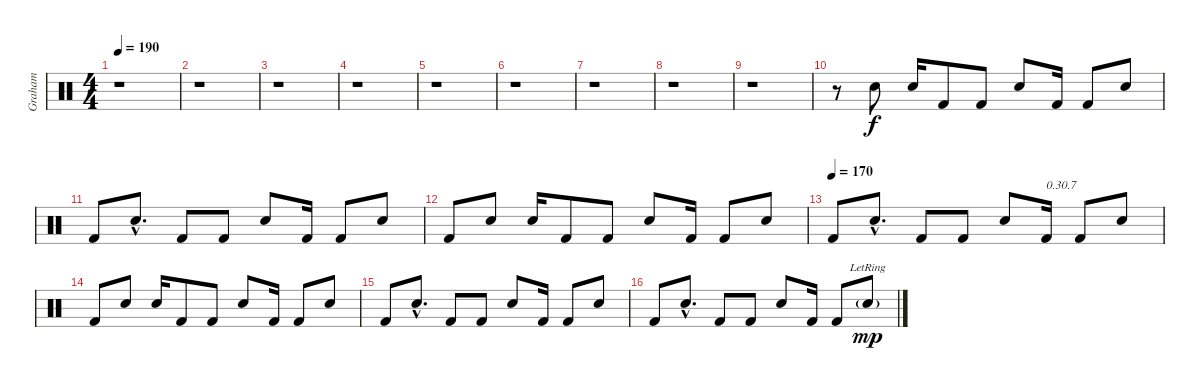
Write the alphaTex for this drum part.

\track ("Graham" "Graham") {instrument percussion}
\staff {score}
\articulation defaults
\ts (4 4)
\tempo 190
\tempo 95
\tempo 190
\clef neutral
\ks c
r.1{dy f} |
r.1 |
r.1 |
r.1 |
r.1 |
r.1 |
r.1 |
r.1 |
r.1 |
r.8 "Electric Snare (hit)".8 "Electric Snare (hit)".16 "Kick (hit) 2".8 "Kick (hit) 2".8 "Electric Snare (hit)".8 "Kick (hit) 2".16 "Kick (hit) 2".8 "Electric Snare (hit)".8 |
"Kick (hit) 2".8 "Electric Snare (hit)"{hac}.8{d} "Kick (hit) 2".8 "Kick (hit) 2".8 "Electric Snare (hit)".8 "Kick (hit) 2".16 "Kick (hit) 2".8 "Electric Snare (hit)".8 |
"Kick (hit) 2".8 "Electric Snare (hit)".8 "Electric Snare (hit)".16 "Kick (hit) 2".8 "Kick (hit) 2".8 "Electric Snare (hit)".8 "Kick (hit) 2".16 "Kick (hit) 2".8 "Electric Snare (hit)".8 |
\tempo (170)
"Kick (hit) 2".8 "Electric Snare (hit)"{hac}.8{d} "Kick (hit) 2".8 "Kick (hit) 2".8 "Electric Snare (hit)".8 "Kick (hit) 2".16{txt "0.30.7"} "Kick (hit) 2".8 "Electric Snare (hit)".8 |
"Kick (hit) 2".8 "Electric Snare (hit)".8 "Electric Snare (hit)".16 "Kick (hit) 2".8 "Kick (hit) 2".8 "Electric Snare (hit)".8 "Kick (hit) 2".16 "Kick (hit) 2".8 "Electric Snare (hit)".8 |
"Kick (hit) 2".8 "Electric Snare (hit)"{hac}.8{d} "Kick (hit) 2".8 "Kick (hit) 2".8 "Electric Snare (hit)".8 "Kick (hit) 2".16 "Kick (hit) 2".8 "Electric Snare (hit)".8 |
"Kick (hit) 2".8 "Electric Snare (hit)"{hac}.8{d} "Kick (hit) 2".8 "Kick (hit) 2".8 "Electric Snare (hit)".8 "Kick (hit) 2".16 "Kick (hit) 2".8 "Electric Snare (hit)"{g lr}.8{dy mp}
